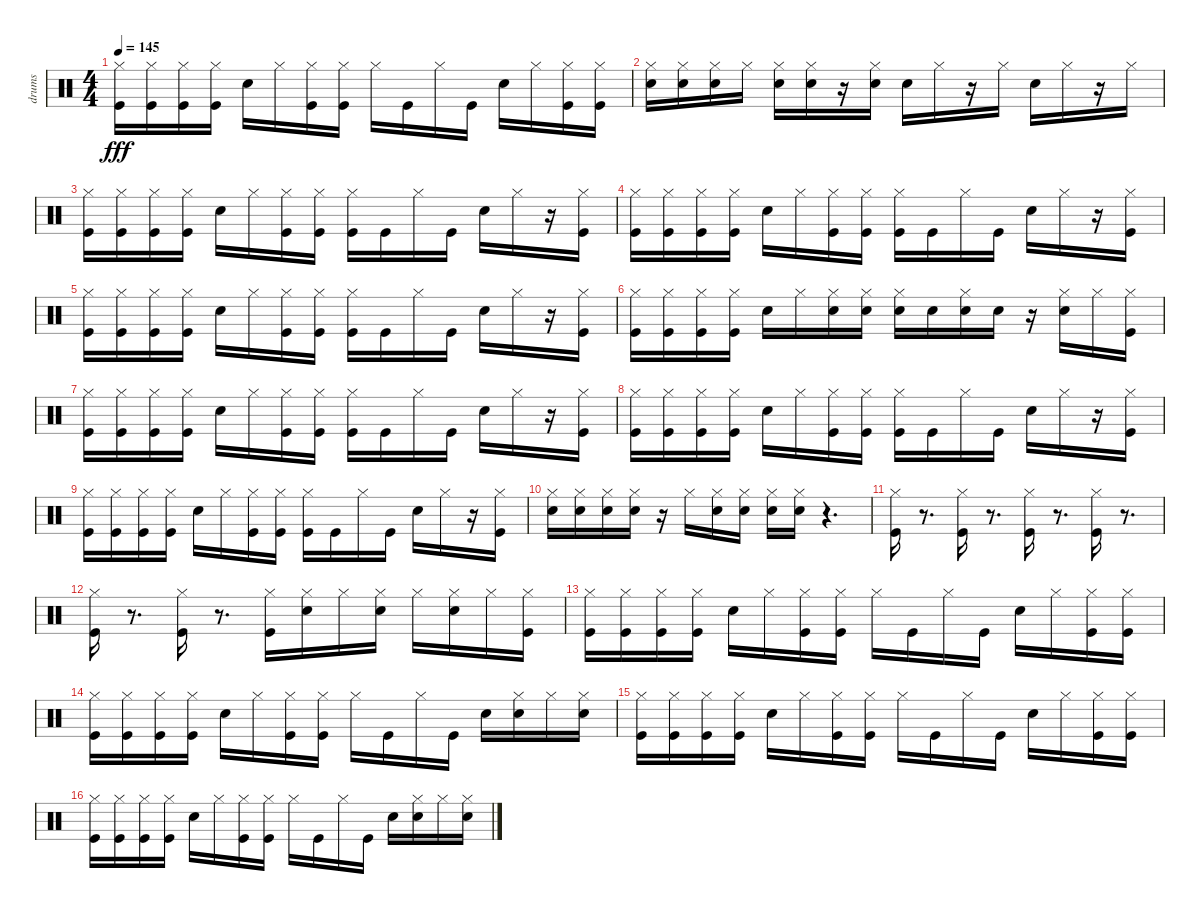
\track ("drums" "drums") {instrument percussion}
\staff {score}
\articulation defaults
\ts (4 4)
\tempo 145
\clef neutral
\ks c
("Kick (hit)" "Hi-Hat (closed)").16{dy fff} ("Kick (hit)" "Hi-Hat (closed)").16 ("Kick (hit)" "Hi-Hat (closed)").16 ("Kick (hit)" "Hi-Hat (closed)").16 "Snare (hit) 2".16 "Hi-Hat (closed)".16 ("Kick (hit)" "Hi-Hat (closed)").16 ("Kick (hit)" "Hi-Hat (closed)").16 "Hi-Hat (closed)".16 "Kick (hit)".16 "Hi-Hat (closed)".16 "Kick (hit)".16 "Snare (hit) 2".16 "Hi-Hat (closed)".16 ("Kick (hit)" "Hi-Hat (closed)").16 ("Kick (hit)" "Hi-Hat (closed)").16 |
("Snare (hit) 2" "Hi-Hat (closed)").16 ("Snare (hit) 2" "Hi-Hat (closed)").16 ("Snare (hit) 2" "Hi-Hat (closed)").16 "Hi-Hat (closed)".16 ("Snare (hit) 2" "Hi-Hat (closed)").16 ("Snare (hit) 2" "Hi-Hat (closed)").16 r.16 ("Snare (hit) 2" "Hi-Hat (closed)").16 "Snare (hit) 2".16 "Hi-Hat (closed)".16 r.16 "Hi-Hat (closed)".16 "Snare (hit) 2".16 "Hi-Hat (closed)".16 r.16 "Hi-Hat (closed)".16 |
("Kick (hit)" "Hi-Hat (closed)").16 ("Kick (hit)" "Hi-Hat (closed)").16 ("Kick (hit)" "Hi-Hat (closed)").16 ("Kick (hit)" "Hi-Hat (closed)").16 "Snare (hit) 2".16 "Hi-Hat (closed)".16 ("Kick (hit)" "Hi-Hat (closed)").16 ("Kick (hit)" "Hi-Hat (closed)").16 ("Kick (hit)" "Hi-Hat (closed)").16 "Kick (hit)".16 "Hi-Hat (closed)".16 "Kick (hit)".16 "Snare (hit) 2".16 "Hi-Hat (closed)".16 r.16 ("Kick (hit)" "Hi-Hat (closed)").16 |
("Kick (hit)" "Hi-Hat (closed)").16 ("Kick (hit)" "Hi-Hat (closed)").16 ("Kick (hit)" "Hi-Hat (closed)").16 ("Kick (hit)" "Hi-Hat (closed)").16 "Snare (hit) 2".16 "Hi-Hat (closed)".16 ("Kick (hit)" "Hi-Hat (closed)").16 ("Kick (hit)" "Hi-Hat (closed)").16 ("Kick (hit)" "Hi-Hat (closed)").16 "Kick (hit)".16 "Hi-Hat (closed)".16 "Kick (hit)".16 "Snare (hit) 2".16 "Hi-Hat (closed)".16 r.16 ("Kick (hit)" "Hi-Hat (closed)").16 |
("Kick (hit)" "Hi-Hat (closed)").16 ("Kick (hit)" "Hi-Hat (closed)").16 ("Kick (hit)" "Hi-Hat (closed)").16 ("Kick (hit)" "Hi-Hat (closed)").16 "Snare (hit) 2".16 "Hi-Hat (closed)".16 ("Kick (hit)" "Hi-Hat (closed)").16 ("Kick (hit)" "Hi-Hat (closed)").16 ("Kick (hit)" "Hi-Hat (closed)").16 "Kick (hit)".16 "Hi-Hat (closed)".16 "Kick (hit)".16 "Snare (hit) 2".16 "Hi-Hat (closed)".16 r.16 ("Kick (hit)" "Hi-Hat (closed)").16 |
("Kick (hit)" "Hi-Hat (closed)").16 ("Kick (hit)" "Hi-Hat (closed)").16 ("Kick (hit)" "Hi-Hat (closed)").16 ("Kick (hit)" "Hi-Hat (closed)").16 "Snare (hit) 2".16 "Hi-Hat (closed)".16 ("Snare (hit) 2" "Hi-Hat (closed)").16 ("Snare (hit) 2" "Hi-Hat (closed)").16 ("Snare (hit) 2" "Hi-Hat (closed)").16 "Snare (hit) 2".16 ("Snare (hit) 2" "Hi-Hat (closed)").16 "Snare (hit) 2".16 r.16 ("Snare (hit) 2" "Hi-Hat (closed)").16 "Hi-Hat (closed)".16 ("Kick (hit)" "Hi-Hat (closed)").16 |
("Kick (hit)" "Hi-Hat (closed)").16 ("Kick (hit)" "Hi-Hat (closed)").16 ("Kick (hit)" "Hi-Hat (closed)").16 ("Kick (hit)" "Hi-Hat (closed)").16 "Snare (hit) 2".16 "Hi-Hat (closed)".16 ("Kick (hit)" "Hi-Hat (closed)").16 ("Kick (hit)" "Hi-Hat (closed)").16 ("Kick (hit)" "Hi-Hat (closed)").16 "Kick (hit)".16 "Hi-Hat (closed)".16 "Kick (hit)".16 "Snare (hit) 2".16 "Hi-Hat (closed)".16 r.16 ("Kick (hit)" "Hi-Hat (closed)").16 |
("Kick (hit)" "Hi-Hat (closed)").16 ("Kick (hit)" "Hi-Hat (closed)").16 ("Kick (hit)" "Hi-Hat (closed)").16 ("Kick (hit)" "Hi-Hat (closed)").16 "Snare (hit) 2".16 "Hi-Hat (closed)".16 ("Kick (hit)" "Hi-Hat (closed)").16 ("Kick (hit)" "Hi-Hat (closed)").16 ("Kick (hit)" "Hi-Hat (closed)").16 "Kick (hit)".16 "Hi-Hat (closed)".16 "Kick (hit)".16 "Snare (hit) 2".16 "Hi-Hat (closed)".16 r.16 ("Kick (hit)" "Hi-Hat (closed)").16 |
("Kick (hit)" "Hi-Hat (closed)").16 ("Kick (hit)" "Hi-Hat (closed)").16 ("Kick (hit)" "Hi-Hat (closed)").16 ("Kick (hit)" "Hi-Hat (closed)").16 "Snare (hit) 2".16 "Hi-Hat (closed)".16 ("Kick (hit)" "Hi-Hat (closed)").16 ("Kick (hit)" "Hi-Hat (closed)").16 ("Kick (hit)" "Hi-Hat (closed)").16 "Kick (hit)".16 "Hi-Hat (closed)".16 "Kick (hit)".16 "Snare (hit) 2".16 "Hi-Hat (closed)".16 r.16 ("Kick (hit)" "Hi-Hat (closed)").16 |
("Snare (hit) 2" "Hi-Hat (closed)").16 ("Snare (hit) 2" "Hi-Hat (closed)").16 ("Snare (hit) 2" "Hi-Hat (closed)").16 ("Snare (hit) 2" "Hi-Hat (closed)").16 r.16 "Hi-Hat (closed)".16 ("Snare (hit) 2" "Hi-Hat (closed)").16 ("Snare (hit) 2" "Hi-Hat (closed)").16 ("Snare (hit) 2" "Hi-Hat (closed)").16 ("Snare (hit) 2" "Hi-Hat (closed)").16 r.4{d} |
("Kick (hit)" "Hi-Hat (closed)").16 r.8{d} ("Kick (hit)" "Hi-Hat (closed)").16 r.8{d} ("Kick (hit)" "Hi-Hat (closed)").16 r.8{d} ("Kick (hit)" "Hi-Hat (closed)").16 r.8{d} |
("Kick (hit)" "Hi-Hat (closed)").16 r.8{d} ("Kick (hit)" "Hi-Hat (closed)").16 r.8{d} ("Kick (hit)" "Hi-Hat (closed)").16 ("Snare (hit) 2" "Hi-Hat (closed)").16 "Hi-Hat (closed)".16 ("Snare (hit) 2" "Hi-Hat (closed)").16 "Hi-Hat (closed)".16 ("Snare (hit) 2" "Hi-Hat (closed)").16 "Hi-Hat (closed)".16 ("Kick (hit)" "Hi-Hat (closed)").16 |
("Kick (hit)" "Hi-Hat (closed)").16 ("Kick (hit)" "Hi-Hat (closed)").16 ("Kick (hit)" "Hi-Hat (closed)").16 ("Kick (hit)" "Hi-Hat (closed)").16 "Snare (hit) 2".16 "Hi-Hat (closed)".16 ("Kick (hit)" "Hi-Hat (closed)").16 ("Kick (hit)" "Hi-Hat (closed)").16 "Hi-Hat (closed)".16 "Kick (hit)".16 "Hi-Hat (closed)".16 "Kick (hit)".16 "Snare (hit) 2".16 "Hi-Hat (closed)".16 ("Kick (hit)" "Hi-Hat (closed)").16 ("Kick (hit)" "Hi-Hat (closed)").16 |
("Kick (hit)" "Hi-Hat (closed)").16 ("Kick (hit)" "Hi-Hat (closed)").16 ("Kick (hit)" "Hi-Hat (closed)").16 ("Kick (hit)" "Hi-Hat (closed)").16 "Snare (hit) 2".16 "Hi-Hat (closed)".16 ("Kick (hit)" "Hi-Hat (closed)").16 ("Kick (hit)" "Hi-Hat (closed)").16 "Hi-Hat (closed)".16 "Kick (hit)".16 "Hi-Hat (closed)".16 "Kick (hit)".16 "Snare (hit) 2".16 ("Snare (hit) 2" "Hi-Hat (closed)").16 "Hi-Hat (closed)".16 ("Snare (hit) 2" "Hi-Hat (closed)").16 |
("Kick (hit)" "Hi-Hat (closed)").16 ("Kick (hit)" "Hi-Hat (closed)").16 ("Kick (hit)" "Hi-Hat (closed)").16 ("Kick (hit)" "Hi-Hat (closed)").16 "Snare (hit) 2".16 "Hi-Hat (closed)".16 ("Kick (hit)" "Hi-Hat (closed)").16 ("Kick (hit)" "Hi-Hat (closed)").16 "Hi-Hat (closed)".16 "Kick (hit)".16 "Hi-Hat (closed)".16 "Kick (hit)".16 "Snare (hit) 2".16 "Hi-Hat (closed)".16 ("Kick (hit)" "Hi-Hat (closed)").16 ("Kick (hit)" "Hi-Hat (closed)").16 |
("Kick (hit)" "Hi-Hat (closed)").16 ("Kick (hit)" "Hi-Hat (closed)").16 ("Kick (hit)" "Hi-Hat (closed)").16 ("Kick (hit)" "Hi-Hat (closed)").16 "Snare (hit) 2".16 "Hi-Hat (closed)".16 ("Kick (hit)" "Hi-Hat (closed)").16 ("Kick (hit)" "Hi-Hat (closed)").16 "Hi-Hat (closed)".16 "Kick (hit)".16 "Hi-Hat (closed)".16 "Kick (hit)".16 "Snare (hit) 2".16 ("Snare (hit) 2" "Hi-Hat (closed)").16 "Hi-Hat (closed)".16 ("Snare (hit) 2" "Hi-Hat (closed)").16
